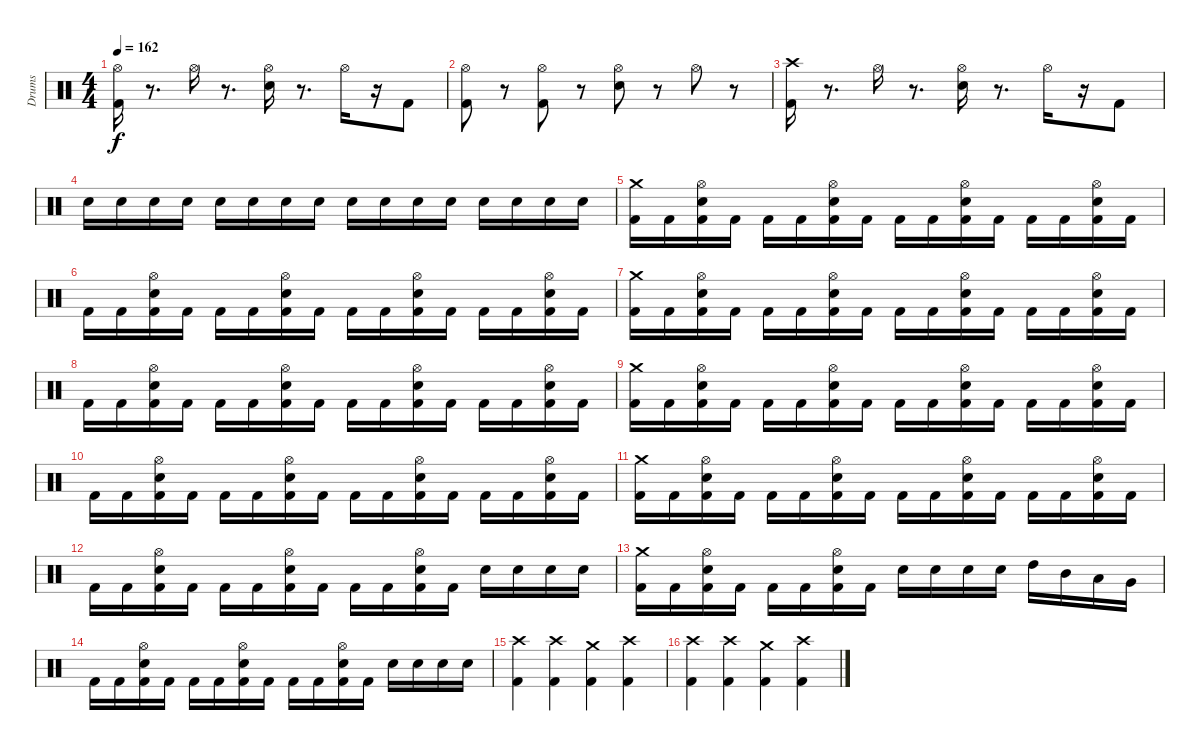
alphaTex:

\track ("Drums" "Drums") {instrument percussion}
\staff {score}
\articulation defaults
\ts (4 4)
\tempo 162
\clef neutral
\ks c
("Hi-Hat (open)" "Kick (hit) 2").16{dy f} r.8{d} "Hi-Hat (open)".16 r.8{d} ("Hi-Hat (open)" "Electric Snare (hit)").16 r.8{d} "Hi-Hat (open)".16 r.16 "Kick (hit) 2".8 |
("Hi-Hat (open)" "Kick (hit) 2").8 r.8 ("Hi-Hat (open)" "Kick (hit) 2").8 r.8 ("Hi-Hat (open)" "Electric Snare (hit)").8 r.8 "Hi-Hat (open)".8 r.8 |
("Crash high (hit)" "Kick (hit) 2").16 r.8{d} "Hi-Hat (open)".16 r.8{d} ("Hi-Hat (open)" "Electric Snare (hit)").16 r.8{d} "Hi-Hat (open)".16 r.16 "Kick (hit) 2".8 |
"Electric Snare (hit)".16 "Electric Snare (hit)".16 "Electric Snare (hit)".16 "Electric Snare (hit)".16 "Electric Snare (hit)".16 "Electric Snare (hit)".16 "Electric Snare (hit)".16 "Electric Snare (hit)".16 "Electric Snare (hit)".16 "Electric Snare (hit)".16 "Electric Snare (hit)".16 "Electric Snare (hit)".16 "Electric Snare (hit)".16 "Electric Snare (hit)".16 "Electric Snare (hit)".16 "Electric Snare (hit)".16 |
("Crash medium (hit)" "Kick (hit) 2").16 "Kick (hit) 2".16 ("Kick (hit) 2" "Hi-Hat (open)" "Electric Snare (hit)").16 "Kick (hit) 2".16 "Kick (hit) 2".16 "Kick (hit) 2".16 ("Electric Snare (hit)" "Kick (hit) 2" "Hi-Hat (open)").16 "Kick (hit) 2".16 "Kick (hit) 2".16 "Kick (hit) 2".16 ("Electric Snare (hit)" "Kick (hit) 2" "Hi-Hat (open)").16 "Kick (hit) 2".16 "Kick (hit) 2".16 "Kick (hit) 2".16 ("Hi-Hat (open)" "Electric Snare (hit)" "Kick (hit) 2").16 "Kick (hit) 2".16 |
"Kick (hit) 2".16 "Kick (hit) 2".16 ("Hi-Hat (open)" "Kick (hit) 2" "Electric Snare (hit)").16 "Kick (hit) 2".16 "Kick (hit) 2".16 "Kick (hit) 2".16 ("Electric Snare (hit)" "Hi-Hat (open)" "Kick (hit) 2").16 "Kick (hit) 2".16 "Kick (hit) 2".16 "Kick (hit) 2".16 ("Hi-Hat (open)" "Electric Snare (hit)" "Kick (hit) 2").16 "Kick (hit) 2".16 "Kick (hit) 2".16 "Kick (hit) 2".16 ("Electric Snare (hit)" "Kick (hit) 2" "Hi-Hat (open)").16 "Kick (hit) 2".16 |
("Kick (hit) 2" "Crash medium (hit)").16 "Kick (hit) 2".16 ("Hi-Hat (open)" "Electric Snare (hit)" "Kick (hit) 2").16 "Kick (hit) 2".16 "Kick (hit) 2".16 "Kick (hit) 2".16 ("Hi-Hat (open)" "Kick (hit) 2" "Electric Snare (hit)").16 "Kick (hit) 2".16 "Kick (hit) 2".16 "Kick (hit) 2".16 ("Hi-Hat (open)" "Electric Snare (hit)" "Kick (hit) 2").16 "Kick (hit) 2".16 "Kick (hit) 2".16 "Kick (hit) 2".16 ("Hi-Hat (open)" "Electric Snare (hit)" "Kick (hit) 2").16 "Kick (hit) 2".16 |
"Kick (hit) 2".16 "Kick (hit) 2".16 ("Hi-Hat (open)" "Electric Snare (hit)" "Kick (hit) 2").16 "Kick (hit) 2".16 "Kick (hit) 2".16 "Kick (hit) 2".16 ("Electric Snare (hit)" "Kick (hit) 2" "Hi-Hat (open)").16 "Kick (hit) 2".16 "Kick (hit) 2".16 "Kick (hit) 2".16 ("Electric Snare (hit)" "Kick (hit) 2" "Hi-Hat (open)").16 "Kick (hit) 2".16 "Kick (hit) 2".16 "Kick (hit) 2".16 ("Electric Snare (hit)" "Hi-Hat (open)" "Kick (hit) 2").16 "Kick (hit) 2".16 |
("Crash medium (hit)" "Kick (hit) 2").16 "Kick (hit) 2".16 ("Electric Snare (hit)" "Kick (hit) 2" "Hi-Hat (open)").16 "Kick (hit) 2".16 "Kick (hit) 2".16 "Kick (hit) 2".16 ("Hi-Hat (open)" "Electric Snare (hit)" "Kick (hit) 2").16 "Kick (hit) 2".16 "Kick (hit) 2".16 "Kick (hit) 2".16 ("Hi-Hat (open)" "Electric Snare (hit)" "Kick (hit) 2").16 "Kick (hit) 2".16 "Kick (hit) 2".16 "Kick (hit) 2".16 ("Hi-Hat (open)" "Electric Snare (hit)" "Kick (hit) 2").16 "Kick (hit) 2".16 |
"Kick (hit) 2".16 "Kick (hit) 2".16 ("Hi-Hat (open)" "Electric Snare (hit)" "Kick (hit) 2").16 "Kick (hit) 2".16 "Kick (hit) 2".16 "Kick (hit) 2".16 ("Hi-Hat (open)" "Electric Snare (hit)" "Kick (hit) 2").16 "Kick (hit) 2".16 "Kick (hit) 2".16 "Kick (hit) 2".16 ("Hi-Hat (open)" "Electric Snare (hit)" "Kick (hit) 2").16 "Kick (hit) 2".16 "Kick (hit) 2".16 "Kick (hit) 2".16 ("Hi-Hat (open)" "Electric Snare (hit)" "Kick (hit) 2").16 "Kick (hit) 2".16 |
("Crash medium (hit)" "Kick (hit) 2").16 "Kick (hit) 2".16 ("Kick (hit) 2" "Hi-Hat (open)" "Electric Snare (hit)").16 "Kick (hit) 2".16 "Kick (hit) 2".16 "Kick (hit) 2".16 ("Hi-Hat (open)" "Electric Snare (hit)" "Kick (hit) 2").16 "Kick (hit) 2".16 "Kick (hit) 2".16 "Kick (hit) 2".16 ("Hi-Hat (open)" "Kick (hit) 2" "Electric Snare (hit)").16 "Kick (hit) 2".16 "Kick (hit) 2".16 "Kick (hit) 2".16 ("Hi-Hat (open)" "Electric Snare (hit)" "Kick (hit) 2").16 "Kick (hit) 2".16 |
"Kick (hit) 2".16 "Kick (hit) 2".16 ("Electric Snare (hit)" "Hi-Hat (open)" "Kick (hit) 2").16 "Kick (hit) 2".16 "Kick (hit) 2".16 "Kick (hit) 2".16 ("Electric Snare (hit)" "Kick (hit) 2" "Hi-Hat (open)").16 "Kick (hit) 2".16 "Kick (hit) 2".16 "Kick (hit) 2".16 ("Electric Snare (hit)" "Kick (hit) 2" "Hi-Hat (open)").16 "Kick (hit) 2".16 "Electric Snare (hit)".16 "Electric Snare (hit)".16 "Electric Snare (hit)".16 "Electric Snare (hit)".16 |
("Crash medium (hit)" "Kick (hit) 2").16 "Kick (hit) 2".16 ("Hi-Hat (open)" "Electric Snare (hit)" "Kick (hit) 2").16 "Kick (hit) 2".16 "Kick (hit) 2".16 "Kick (hit) 2".16 ("Electric Snare (hit)" "Kick (hit) 2" "Hi-Hat (open)").16 "Kick (hit) 2".16 "Electric Snare (hit)".16 "Electric Snare (hit)".16 "Electric Snare (hit)".16 "Electric Snare (hit)".16 "High Tom (hit)".16 "Mid Tom (hit)".16 "Low Tom (hit)".16 "Very Low Tom (hit)".16 |
"Kick (hit) 2".16 "Kick (hit) 2".16 ("Hi-Hat (open)" "Kick (hit) 2" "Electric Snare (hit)").16 "Kick (hit) 2".16 "Kick (hit) 2".16 "Kick (hit) 2".16 ("Electric Snare (hit)" "Hi-Hat (open)" "Kick (hit) 2").16 "Kick (hit) 2".16 "Kick (hit) 2".16 "Kick (hit) 2".16 ("Hi-Hat (open)" "Electric Snare (hit)" "Kick (hit) 2").16 "Kick (hit) 2".16 "Electric Snare (hit)".16 "Electric Snare (hit)".16 "Electric Snare (hit)".16 "Electric Snare (hit)".16 |
("Crash high (hit)" "Kick (hit) 2").4 ("Crash high (hit)" "Kick (hit) 2").4 ("Crash medium (hit)" "Kick (hit) 2").4 ("Crash high (hit)" "Kick (hit) 2").4 |
("Crash high (hit)" "Kick (hit) 2").4 ("Crash high (hit)" "Kick (hit) 2").4 ("Crash medium (hit)" "Kick (hit) 2").4 ("Crash high (hit)" "Kick (hit) 2").4
